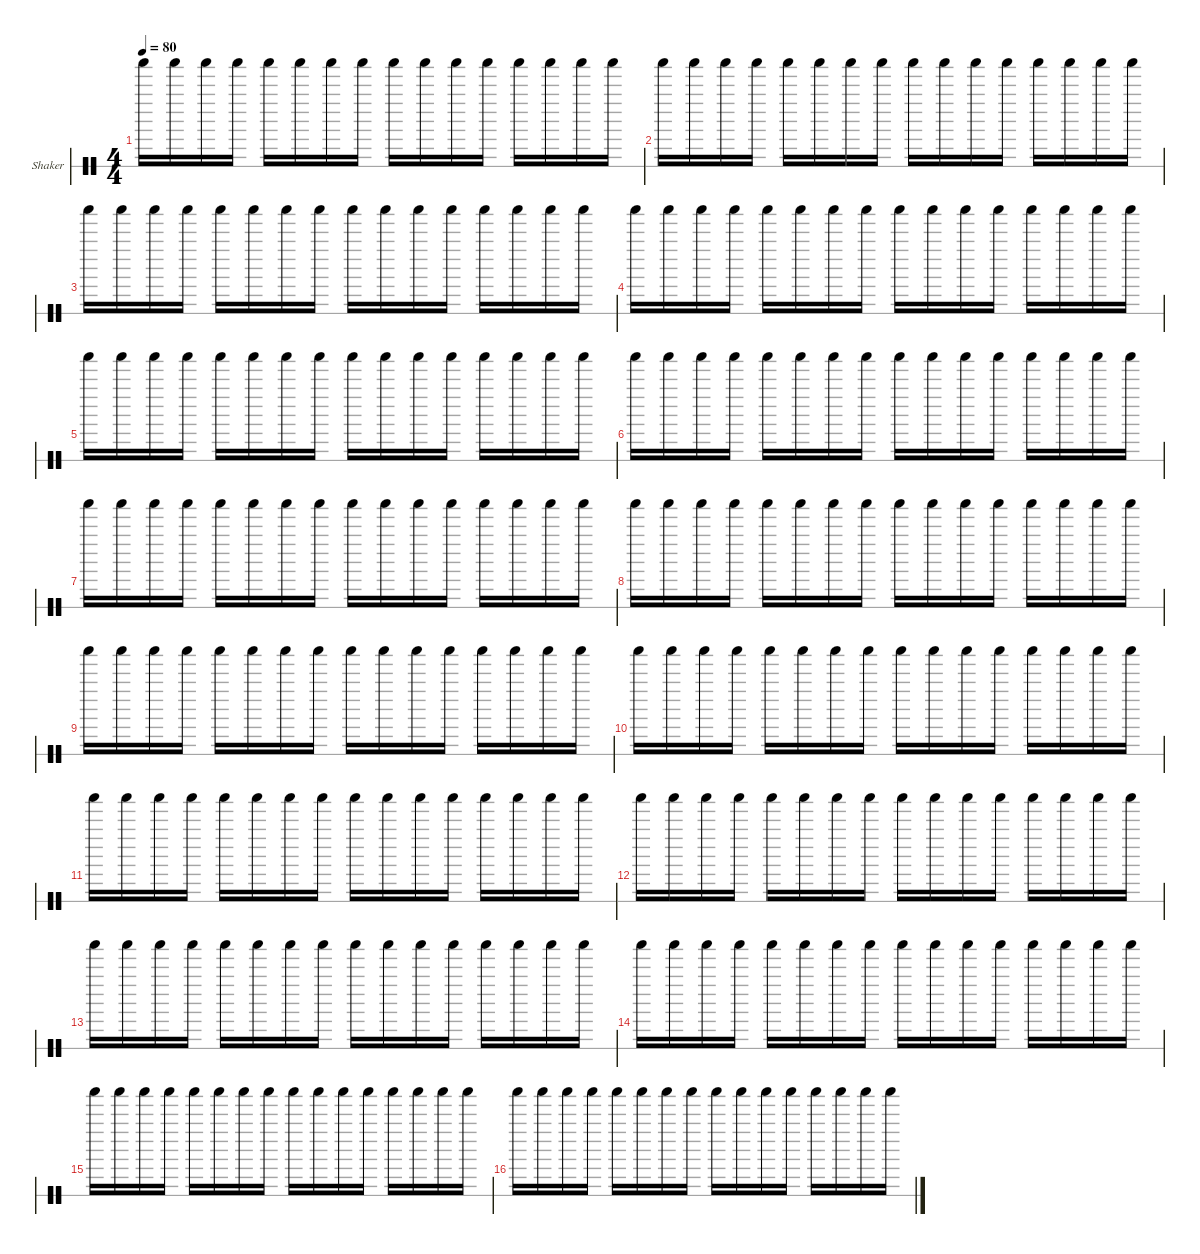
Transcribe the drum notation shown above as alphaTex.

\hideDynamics
\bracketExtendMode nobrackets
\firstSystemTrackNameOrientation horizontal
\otherSystemsTrackNameOrientation horizontal
\track ("Shaker" "Shaker") {instrument percussion}
\staff {score 1}
\articulation defaults
\ts (4 4)
\tempo 80
\clef neutral
\ks c "Shaker (hit)".16{dy f} "Shaker (hit)".16 "Shaker (hit)".16 "Shaker (hit)".16 "Shaker (hit)".16 "Shaker (hit)".16 "Shaker (hit)".16 "Shaker (hit)".16 "Shaker (hit)".16 "Shaker (hit)".16 "Shaker (hit)".16 "Shaker (hit)".16 "Shaker (hit)".16 "Shaker (hit)".16 "Shaker (hit)".16 "Shaker (hit)".16
|
"Shaker (hit)".16 "Shaker (hit)".16 "Shaker (hit)".16 "Shaker (hit)".16 "Shaker (hit)".16 "Shaker (hit)".16 "Shaker (hit)".16 "Shaker (hit)".16 "Shaker (hit)".16 "Shaker (hit)".16 "Shaker (hit)".16 "Shaker (hit)".16 "Shaker (hit)".16 "Shaker (hit)".16 "Shaker (hit)".16 "Shaker (hit)".16 |
"Shaker (hit)".16 "Shaker (hit)".16 "Shaker (hit)".16 "Shaker (hit)".16 "Shaker (hit)".16 "Shaker (hit)".16 "Shaker (hit)".16 "Shaker (hit)".16 "Shaker (hit)".16 "Shaker (hit)".16 "Shaker (hit)".16 "Shaker (hit)".16 "Shaker (hit)".16 "Shaker (hit)".16 "Shaker (hit)".16 "Shaker (hit)".16 |
"Shaker (hit)".16 "Shaker (hit)".16 "Shaker (hit)".16 "Shaker (hit)".16 "Shaker (hit)".16 "Shaker (hit)".16 "Shaker (hit)".16 "Shaker (hit)".16 "Shaker (hit)".16 "Shaker (hit)".16 "Shaker (hit)".16 "Shaker (hit)".16 "Shaker (hit)".16 "Shaker (hit)".16 "Shaker (hit)".16 "Shaker (hit)".16 |
"Shaker (hit)".16 "Shaker (hit)".16 "Shaker (hit)".16 "Shaker (hit)".16 "Shaker (hit)".16 "Shaker (hit)".16 "Shaker (hit)".16 "Shaker (hit)".16 "Shaker (hit)".16 "Shaker (hit)".16 "Shaker (hit)".16 "Shaker (hit)".16 "Shaker (hit)".16 "Shaker (hit)".16 "Shaker (hit)".16 "Shaker (hit)".16 |
"Shaker (hit)".16 "Shaker (hit)".16 "Shaker (hit)".16 "Shaker (hit)".16 "Shaker (hit)".16 "Shaker (hit)".16 "Shaker (hit)".16 "Shaker (hit)".16 "Shaker (hit)".16 "Shaker (hit)".16 "Shaker (hit)".16 "Shaker (hit)".16 "Shaker (hit)".16 "Shaker (hit)".16 "Shaker (hit)".16 "Shaker (hit)".16 |
"Shaker (hit)".16 "Shaker (hit)".16 "Shaker (hit)".16 "Shaker (hit)".16 "Shaker (hit)".16 "Shaker (hit)".16 "Shaker (hit)".16 "Shaker (hit)".16 "Shaker (hit)".16 "Shaker (hit)".16 "Shaker (hit)".16 "Shaker (hit)".16 "Shaker (hit)".16 "Shaker (hit)".16 "Shaker (hit)".16 "Shaker (hit)".16 |
"Shaker (hit)".16 "Shaker (hit)".16 "Shaker (hit)".16 "Shaker (hit)".16 "Shaker (hit)".16 "Shaker (hit)".16 "Shaker (hit)".16 "Shaker (hit)".16 "Shaker (hit)".16 "Shaker (hit)".16 "Shaker (hit)".16 "Shaker (hit)".16 "Shaker (hit)".16 "Shaker (hit)".16 "Shaker (hit)".16 "Shaker (hit)".16 |
"Shaker (hit)".16 "Shaker (hit)".16 "Shaker (hit)".16 "Shaker (hit)".16 "Shaker (hit)".16 "Shaker (hit)".16 "Shaker (hit)".16 "Shaker (hit)".16 "Shaker (hit)".16 "Shaker (hit)".16 "Shaker (hit)".16 "Shaker (hit)".16 "Shaker (hit)".16 "Shaker (hit)".16 "Shaker (hit)".16 "Shaker (hit)".16 |
"Shaker (hit)".16 "Shaker (hit)".16 "Shaker (hit)".16 "Shaker (hit)".16 "Shaker (hit)".16 "Shaker (hit)".16 "Shaker (hit)".16 "Shaker (hit)".16 "Shaker (hit)".16 "Shaker (hit)".16 "Shaker (hit)".16 "Shaker (hit)".16 "Shaker (hit)".16 "Shaker (hit)".16 "Shaker (hit)".16 "Shaker (hit)".16 |
"Shaker (hit)".16 "Shaker (hit)".16 "Shaker (hit)".16 "Shaker (hit)".16 "Shaker (hit)".16 "Shaker (hit)".16 "Shaker (hit)".16 "Shaker (hit)".16 "Shaker (hit)".16 "Shaker (hit)".16 "Shaker (hit)".16 "Shaker (hit)".16 "Shaker (hit)".16 "Shaker (hit)".16 "Shaker (hit)".16 "Shaker (hit)".16 |
"Shaker (hit)".16 "Shaker (hit)".16 "Shaker (hit)".16 "Shaker (hit)".16 "Shaker (hit)".16 "Shaker (hit)".16 "Shaker (hit)".16 "Shaker (hit)".16 "Shaker (hit)".16 "Shaker (hit)".16 "Shaker (hit)".16 "Shaker (hit)".16 "Shaker (hit)".16 "Shaker (hit)".16 "Shaker (hit)".16 "Shaker (hit)".16 |
"Shaker (hit)".16 "Shaker (hit)".16 "Shaker (hit)".16 "Shaker (hit)".16 "Shaker (hit)".16 "Shaker (hit)".16 "Shaker (hit)".16 "Shaker (hit)".16 "Shaker (hit)".16 "Shaker (hit)".16 "Shaker (hit)".16 "Shaker (hit)".16 "Shaker (hit)".16 "Shaker (hit)".16 "Shaker (hit)".16 "Shaker (hit)".16 |
"Shaker (hit)".16 "Shaker (hit)".16 "Shaker (hit)".16 "Shaker (hit)".16 "Shaker (hit)".16 "Shaker (hit)".16 "Shaker (hit)".16 "Shaker (hit)".16 "Shaker (hit)".16 "Shaker (hit)".16 "Shaker (hit)".16 "Shaker (hit)".16 "Shaker (hit)".16 "Shaker (hit)".16 "Shaker (hit)".16 "Shaker (hit)".16 |
"Shaker (hit)".16 "Shaker (hit)".16 "Shaker (hit)".16 "Shaker (hit)".16 "Shaker (hit)".16 "Shaker (hit)".16 "Shaker (hit)".16 "Shaker (hit)".16 "Shaker (hit)".16 "Shaker (hit)".16 "Shaker (hit)".16 "Shaker (hit)".16 "Shaker (hit)".16 "Shaker (hit)".16 "Shaker (hit)".16 "Shaker (hit)".16 |
"Shaker (hit)".16 "Shaker (hit)".16 "Shaker (hit)".16 "Shaker (hit)".16 "Shaker (hit)".16 "Shaker (hit)".16 "Shaker (hit)".16 "Shaker (hit)".16 "Shaker (hit)".16 "Shaker (hit)".16 "Shaker (hit)".16 "Shaker (hit)".16 "Shaker (hit)".16 "Shaker (hit)".16 "Shaker (hit)".16 "Shaker (hit)".16
